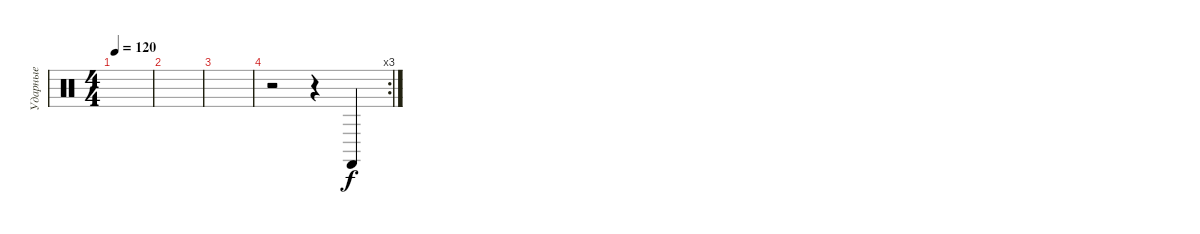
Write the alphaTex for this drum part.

\track ("Ударные" "Ударные") {instrument percussion}
\staff {score}
\articulation defaults
\ts (4 4)
\tempo 120
\clef neutral
\ks c
|
|
|
\rc 3
r.2 r.4 "Castanets (hit)".4
